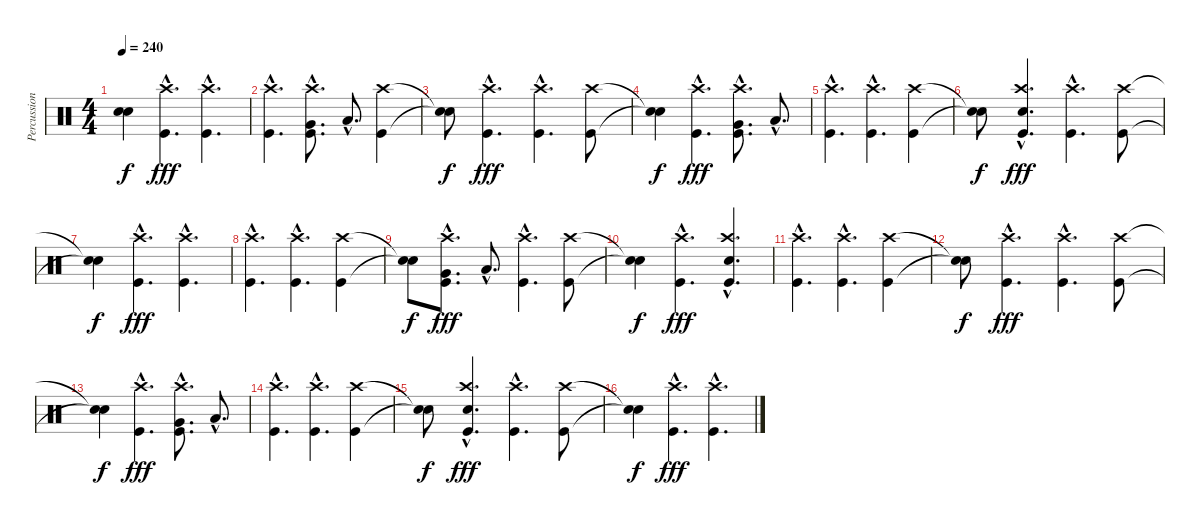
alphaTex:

\track ("Percussion" "Percussion") {instrument percussion}
\staff {score}
\articulation defaults
\ts (4 4)
\tempo 240
\clef neutral
\ks c
("Snare (hit)"{t} "Snare (hit)"{t}).4{dy f} ("Crash high (hit)"{hac} "Kick (hit)"{hac}).4{d dy fff} ("Crash high (hit)"{hac} "Kick (hit)"{hac}).4{d} |
("Crash high (hit)"{hac} "Kick (hit)"{hac}).4{d} ("Crash high (hit)"{hac} "Very Low Tom (hit)"{hac} "Kick (hit)"{hac}).8{d} "Low Floor Tom (hit)"{hac}.8{d} ("Crash high (hit)" "Kick (hit)").4 |
("Snare (hit)"{t} "Snare (hit)"{t}).8{dy f} ("Crash high (hit)"{hac} "Kick (hit)"{hac}).4{d dy fff} ("Crash high (hit)"{hac} "Kick (hit)"{hac}).4{d} ("Crash high (hit)" "Kick (hit)").8 |
("Snare (hit)"{t} "Snare (hit)"{t}).4{dy f} ("Crash high (hit)"{hac} "Kick (hit)"{hac}).4{d dy fff} ("Crash high (hit)"{hac} "Very Low Tom (hit)"{hac} "Kick (hit)"{hac}).8{d} "Low Floor Tom (hit)"{hac}.8{d} |
("Crash high (hit)"{hac} "Kick (hit)"{hac}).4{d} ("Crash high (hit)"{hac} "Kick (hit)"{hac}).4{d} ("Crash high (hit)" "Kick (hit)").4 |
("Snare (hit)"{t} "Snare (hit)"{t}).8{dy f} ("Crash high (hit)"{hac} "Snare (hit) 2"{hac} "Kick (hit)"{hac}).4{d dy fff} ("Crash high (hit)"{hac} "Kick (hit)"{hac}).4{d} ("Crash high (hit)" "Kick (hit)").8 |
("Snare (hit)"{t} "Snare (hit)"{t}).4{dy f} ("Crash high (hit)"{hac} "Kick (hit)"{hac}).4{d dy fff} ("Crash high (hit)"{hac} "Kick (hit)"{hac}).4{d} |
("Crash high (hit)"{hac} "Kick (hit)"{hac}).4{d} ("Crash high (hit)"{hac} "Kick (hit)"{hac}).4{d} ("Crash high (hit)" "Kick (hit)").4 |
("Snare (hit)"{t} "Snare (hit)"{t}).8{dy f} ("Crash high (hit)"{hac} "Very Low Tom (hit)"{hac} "Kick (hit)"{hac}).8{d dy fff} "Low Floor Tom (hit)"{hac}.8{d} ("Crash high (hit)"{hac} "Kick (hit)"{hac}).4{d} ("Crash high (hit)" "Kick (hit)").8 |
("Snare (hit)"{t} "Snare (hit)"{t}).4{dy f} ("Crash high (hit)"{hac} "Kick (hit)"{hac}).4{d dy fff} ("Crash high (hit)"{hac} "Snare (hit) 2"{hac} "Kick (hit)"{hac}).4{d} |
("Crash high (hit)"{hac} "Kick (hit)"{hac}).4{d} ("Crash high (hit)"{hac} "Kick (hit)"{hac}).4{d} ("Crash high (hit)" "Kick (hit)").4 |
("Snare (hit)"{t} "Snare (hit)"{t}).8{dy f} ("Crash high (hit)"{hac} "Kick (hit)"{hac}).4{d dy fff} ("Crash high (hit)"{hac} "Kick (hit)"{hac}).4{d} ("Crash high (hit)" "Kick (hit)").8 |
("Snare (hit)"{t} "Snare (hit)"{t}).4{dy f} ("Crash high (hit)"{hac} "Kick (hit)"{hac}).4{d dy fff} ("Crash high (hit)"{hac} "Very Low Tom (hit)"{hac} "Kick (hit)"{hac}).8{d} "Low Floor Tom (hit)"{hac}.8{d} |
("Crash high (hit)"{hac} "Kick (hit)"{hac}).4{d} ("Crash high (hit)"{hac} "Kick (hit)"{hac}).4{d} ("Crash high (hit)" "Kick (hit)").4 |
("Snare (hit)"{t} "Snare (hit)"{t}).8{dy f} ("Crash high (hit)"{hac} "Snare (hit) 2"{hac} "Kick (hit)"{hac}).4{d dy fff} ("Crash high (hit)"{hac} "Kick (hit)"{hac}).4{d} ("Crash high (hit)" "Kick (hit)").8 |
("Snare (hit)"{t} "Snare (hit)"{t}).4{dy f} ("Crash high (hit)"{hac} "Kick (hit)"{hac}).4{d dy fff} ("Crash high (hit)"{hac} "Kick (hit)"{hac}).4{d}
